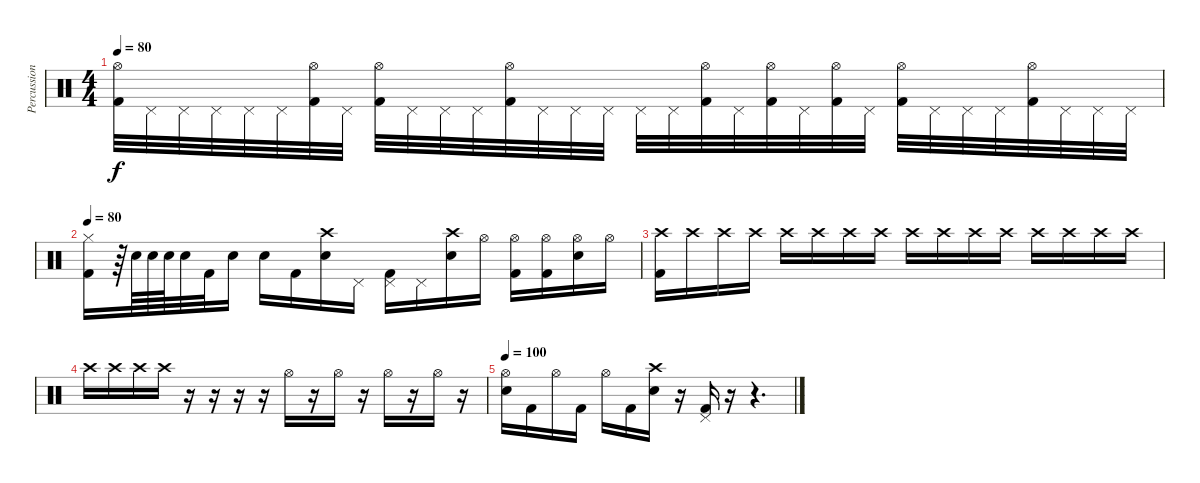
\track ("Percussioni" "Percussion") {instrument percussion}
\staff {score}
\articulation defaults
\ts (4 4)
\tempo 80
\clef neutral
\ks c
("Hi-Hat (open)" "Kick (hit) 2").32{dy f} "Pedal Hi-Hat (hit)".32 "Pedal Hi-Hat (hit)".32 "Pedal Hi-Hat (hit)".32 "Pedal Hi-Hat (hit)".32 "Pedal Hi-Hat (hit)".32 ("Hi-Hat (open)" "Kick (hit) 2").32 "Pedal Hi-Hat (hit)".32 ("Hi-Hat (open)" "Kick (hit) 2").32 "Pedal Hi-Hat (hit)".32 "Pedal Hi-Hat (hit)".32 "Pedal Hi-Hat (hit)".32 ("Hi-Hat (open)" "Kick (hit) 2").32 "Pedal Hi-Hat (hit)".32 "Pedal Hi-Hat (hit)".32 "Pedal Hi-Hat (hit)".32 "Pedal Hi-Hat (hit)".32 "Pedal Hi-Hat (hit)".32 ("Hi-Hat (open)" "Kick (hit) 2").32 "Pedal Hi-Hat (hit)".32 ("Hi-Hat (open)" "Kick (hit) 2").32 "Pedal Hi-Hat (hit)".32 ("Hi-Hat (open)" "Kick (hit) 2").32 "Pedal Hi-Hat (hit)".32 ("Hi-Hat (open)" "Kick (hit) 2").32 "Pedal Hi-Hat (hit)".32 "Pedal Hi-Hat (hit)".32 "Pedal Hi-Hat (hit)".32 ("Hi-Hat (open)" "Kick (hit) 2").32 "Pedal Hi-Hat (hit)".32 "Pedal Hi-Hat (hit)".32 "Pedal Hi-Hat (hit)".32 |
\tempo 80
("Hi-Hat (closed)" "Kick (hit) 2").16 r.64 "Electric Snare (hit)".64 "Electric Snare (hit)".64 "Electric Snare (hit)".64 "Electric Snare (hit)".32 "Kick (hit) 2".32 "Electric Snare (hit)".16 "Electric Snare (hit)".16 "Kick (hit) 2".16 ("Crash high (hit)" "Snare (hit) 2").16 "Pedal Hi-Hat (hit)".16 ("Pedal Hi-Hat (hit)" "Kick (hit) 2").16 "Pedal Hi-Hat (hit)".16 ("Crash high (hit)" "Snare (hit) 2").16 "Hi-Hat (open)".16 ("Hi-Hat (open)" "Kick (hit) 2").16 ("Hi-Hat (open)" "Kick (hit) 2").16 ("Hi-Hat (open)" "Snare (hit) 2").16 "Hi-Hat (open)".16 |
("Crash high (hit)" "Kick (hit) 2").16 "Crash high (hit)".16 "Crash high (hit)".16 "Crash high (hit)".16 "Crash high (hit)".16 "Crash high (hit)".16 "Crash high (hit)".16 "Crash high (hit)".16 "Crash high (hit)".16 "Crash high (hit)".16 "Crash high (hit)".16 "Crash high (hit)".16 "Crash high (hit)".16 "Crash high (hit)".16 "Crash high (hit)".16 "Crash high (hit)".16 |
"Crash high (hit)".16 "Crash high (hit)".16 "Crash high (hit)".16 "Crash high (hit)".16 r.16 r.16 r.16 r.16 "Hi-Hat (open)".16 r.16 "Hi-Hat (open)".16 r.16 "Hi-Hat (open)".16 r.16 "Hi-Hat (open)".16 r.16 |
\tempo 100
("Hi-Hat (open)" "Snare (hit) 2").16 "Kick (hit) 2".16 "Hi-Hat (open)".16 "Kick (hit) 2".16 "Hi-Hat (open)".16 "Kick (hit) 2".16 ("Crash high (hit)" "Snare (hit) 2").16 r.16 ("Pedal Hi-Hat (hit)" "Kick (hit) 2").16 r.16 r.4{d}
